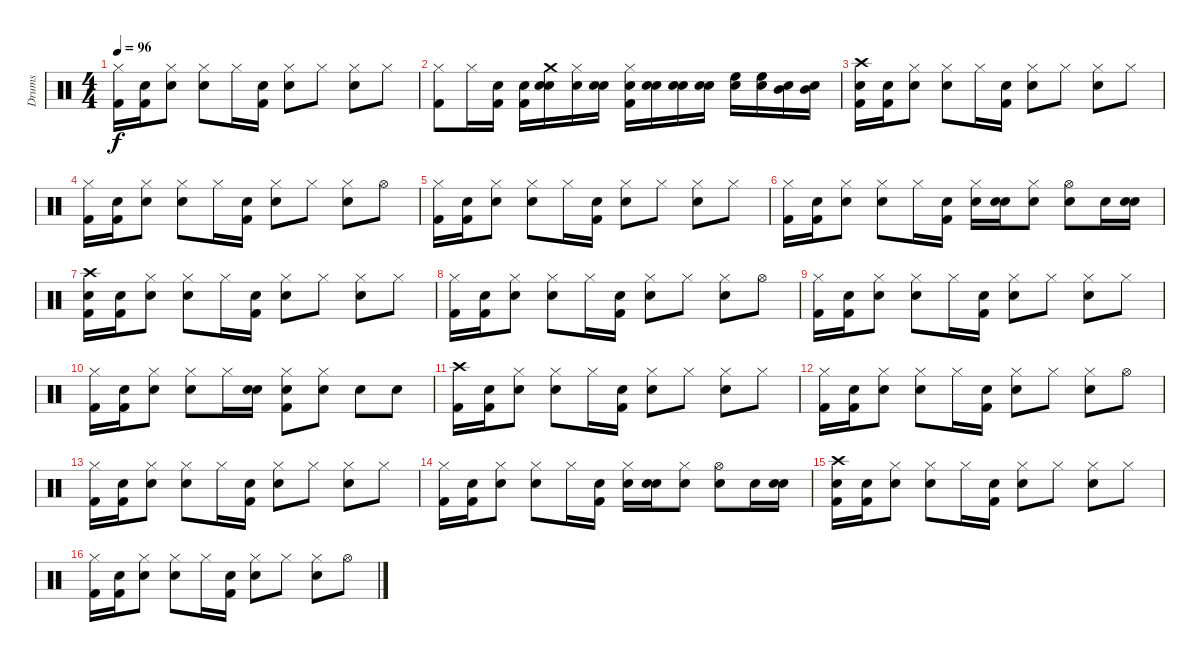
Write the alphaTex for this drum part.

\track ("Drums" "Drums") {instrument percussion}
\staff {score}
\articulation defaults
\ts (4 4)
\tempo 96
\clef neutral
\ks c
("Hi-Hat (closed)" "Kick (hit) 2").16{dy f} ("Snare (hit)" "Kick (hit) 2").16 ("Snare (hit)" "Hi-Hat (closed)").8 ("Snare (hit) 2" "Hi-Hat (closed)").8 "Hi-Hat (closed)".16 ("Snare (hit)" "Kick (hit) 2").16 ("Snare (hit)" "Hi-Hat (closed)").8 "Hi-Hat (closed)".8 ("Snare (hit) 2" "Hi-Hat (closed)").8 "Hi-Hat (closed)".8 |
("Kick (hit) 2" "Hi-Hat (closed)").8 "Hi-Hat (closed)".16 ("Snare (hit)" "Kick (hit) 2").16 ("Snare (hit)" "Kick (hit) 2").16 ("Snare (hit)" "Snare (hit) 2" "Crash medium (hit)").16 ("Snare (hit)" "Hi-Hat (closed)").16 ("Snare (hit)" "Snare (hit) 2").16 ("Snare (hit)" "Kick (hit) 2" "Hi-Hat (closed)").16 ("Snare (hit)" "Snare (hit) 2").16 ("Snare (hit)" "Electric Snare (hit)").16 ("Snare (hit)" "Electric Snare (hit)").16 ("Snare (hit)" "High Floor Tom (hit)").16 ("Snare (hit)" "High Floor Tom (hit)").16 ("Snare (hit)" "Mid Tom (hit)").16 ("Snare (hit)" "Mid Tom (hit)").16 |
("Snare (hit)" "Crash high (hit)" "Kick (hit) 2").16 ("Snare (hit)" "Kick (hit) 2").16 ("Snare (hit)" "Hi-Hat (closed)").8 ("Snare (hit) 2" "Hi-Hat (closed)").8 "Hi-Hat (closed)".16 ("Snare (hit)" "Kick (hit) 2").16 ("Snare (hit)" "Hi-Hat (closed)").8 "Hi-Hat (closed)".8 ("Snare (hit) 2" "Hi-Hat (closed)").8 "Hi-Hat (closed)".8 |
("Hi-Hat (closed)" "Kick (hit) 2").16 ("Snare (hit)" "Kick (hit) 2").16 ("Snare (hit)" "Hi-Hat (closed)").8 ("Snare (hit) 2" "Hi-Hat (closed)").8 "Hi-Hat (closed)".16 ("Snare (hit)" "Kick (hit) 2").16 ("Snare (hit)" "Hi-Hat (closed)").8 "Hi-Hat (closed)".8 ("Snare (hit) 2" "Hi-Hat (closed)").8 "Hi-Hat (open)".8 |
("Hi-Hat (closed)" "Kick (hit) 2").16 ("Snare (hit)" "Kick (hit) 2").16 ("Snare (hit)" "Hi-Hat (closed)").8 ("Snare (hit) 2" "Hi-Hat (closed)").8 "Hi-Hat (closed)".16 ("Snare (hit)" "Kick (hit) 2").16 ("Snare (hit)" "Hi-Hat (closed)").8 "Hi-Hat (closed)".8 ("Snare (hit) 2" "Hi-Hat (closed)").8 "Hi-Hat (closed)".8 |
("Hi-Hat (closed)" "Kick (hit) 2").16 ("Snare (hit)" "Kick (hit) 2").16 ("Snare (hit)" "Hi-Hat (closed)").8 ("Snare (hit) 2" "Hi-Hat (closed)").8 "Hi-Hat (closed)".16 ("Snare (hit)" "Kick (hit) 2").16 ("Snare (hit)" "Hi-Hat (closed)").16 ("Snare (hit)" "Snare (hit) 2").16 ("Snare (hit)" "Hi-Hat (closed)").8 ("Snare (hit) 2" "Hi-Hat (open)").8 "Snare (hit) 2".16 ("Snare (hit)" "Snare (hit) 2").16 |
("Snare (hit)" "Crash high (hit)" "Kick (hit) 2").16 ("Snare (hit)" "Kick (hit) 2").16 ("Snare (hit)" "Hi-Hat (closed)").8 ("Snare (hit) 2" "Hi-Hat (closed)").8 "Hi-Hat (closed)".16 ("Snare (hit)" "Kick (hit) 2").16 ("Snare (hit)" "Hi-Hat (closed)").8 "Hi-Hat (closed)".8 ("Snare (hit) 2" "Hi-Hat (closed)").8 "Hi-Hat (closed)".8 |
("Hi-Hat (closed)" "Kick (hit) 2").16 ("Snare (hit)" "Kick (hit) 2").16 ("Snare (hit)" "Hi-Hat (closed)").8 ("Snare (hit) 2" "Hi-Hat (closed)").8 "Hi-Hat (closed)".16 ("Snare (hit)" "Kick (hit) 2").16 ("Snare (hit)" "Hi-Hat (closed)").8 "Hi-Hat (closed)".8 ("Snare (hit) 2" "Hi-Hat (closed)").8 "Hi-Hat (open)".8 |
("Hi-Hat (closed)" "Kick (hit) 2").16 ("Snare (hit)" "Kick (hit) 2").16 ("Snare (hit)" "Hi-Hat (closed)").8 ("Snare (hit) 2" "Hi-Hat (closed)").8 "Hi-Hat (closed)".16 ("Snare (hit)" "Kick (hit) 2").16 ("Snare (hit)" "Hi-Hat (closed)").8 "Hi-Hat (closed)".8 ("Snare (hit) 2" "Hi-Hat (closed)").8 "Hi-Hat (closed)".8 |
("Hi-Hat (closed)" "Kick (hit) 2").16 ("Snare (hit)" "Kick (hit) 2").16 ("Snare (hit)" "Hi-Hat (closed)").8 ("Snare (hit) 2" "Hi-Hat (closed)").8 "Hi-Hat (closed)".16 ("Snare (hit)" "Snare (hit) 2").16 ("Snare (hit)" "Kick (hit) 2" "Hi-Hat (closed)").8 ("Snare (hit) 2" "Hi-Hat (closed)").8 "Snare (hit) 2".8 "Snare (hit) 2".8 |
("Crash high (hit)" "Kick (hit) 2").16 ("Snare (hit)" "Kick (hit) 2").16 ("Snare (hit)" "Hi-Hat (closed)").8 ("Snare (hit) 2" "Hi-Hat (closed)").8 "Hi-Hat (closed)".16 ("Snare (hit)" "Kick (hit) 2").16 ("Snare (hit)" "Hi-Hat (closed)").8 "Hi-Hat (closed)".8 ("Snare (hit) 2" "Hi-Hat (closed)").8 "Hi-Hat (closed)".8 |
("Hi-Hat (closed)" "Kick (hit) 2").16 ("Snare (hit)" "Kick (hit) 2").16 ("Snare (hit)" "Hi-Hat (closed)").8 ("Snare (hit) 2" "Hi-Hat (closed)").8 "Hi-Hat (closed)".16 ("Snare (hit)" "Kick (hit) 2").16 ("Snare (hit)" "Hi-Hat (closed)").8 "Hi-Hat (closed)".8 ("Snare (hit) 2" "Hi-Hat (closed)").8 "Hi-Hat (open)".8 |
("Hi-Hat (closed)" "Kick (hit) 2").16 ("Snare (hit)" "Kick (hit) 2").16 ("Snare (hit)" "Hi-Hat (closed)").8 ("Snare (hit) 2" "Hi-Hat (closed)").8 "Hi-Hat (closed)".16 ("Snare (hit)" "Kick (hit) 2").16 ("Snare (hit)" "Hi-Hat (closed)").8 "Hi-Hat (closed)".8 ("Snare (hit) 2" "Hi-Hat (closed)").8 "Hi-Hat (closed)".8 |
("Hi-Hat (closed)" "Kick (hit) 2").16 ("Snare (hit)" "Kick (hit) 2").16 ("Snare (hit)" "Hi-Hat (closed)").8 ("Snare (hit) 2" "Hi-Hat (closed)").8 "Hi-Hat (closed)".16 ("Snare (hit)" "Kick (hit) 2").16 ("Snare (hit)" "Hi-Hat (closed)").16 ("Snare (hit)" "Snare (hit) 2").16 ("Snare (hit)" "Hi-Hat (closed)").8 ("Snare (hit) 2" "Hi-Hat (open)").8 "Snare (hit) 2".16 ("Snare (hit)" "Snare (hit) 2").16 |
("Snare (hit)" "Crash high (hit)" "Kick (hit) 2").16 ("Snare (hit)" "Kick (hit) 2").16 ("Snare (hit)" "Hi-Hat (closed)").8 ("Snare (hit) 2" "Hi-Hat (closed)").8 "Hi-Hat (closed)".16 ("Snare (hit)" "Kick (hit) 2").16 ("Snare (hit)" "Hi-Hat (closed)").8 "Hi-Hat (closed)".8 ("Snare (hit) 2" "Hi-Hat (closed)").8 "Hi-Hat (closed)".8 |
("Hi-Hat (closed)" "Kick (hit) 2").16 ("Snare (hit)" "Kick (hit) 2").16 ("Snare (hit)" "Hi-Hat (closed)").8 ("Snare (hit) 2" "Hi-Hat (closed)").8 "Hi-Hat (closed)".16 ("Snare (hit)" "Kick (hit) 2").16 ("Snare (hit)" "Hi-Hat (closed)").8 "Hi-Hat (closed)".8 ("Snare (hit) 2" "Hi-Hat (closed)").8 "Hi-Hat (open)".8
